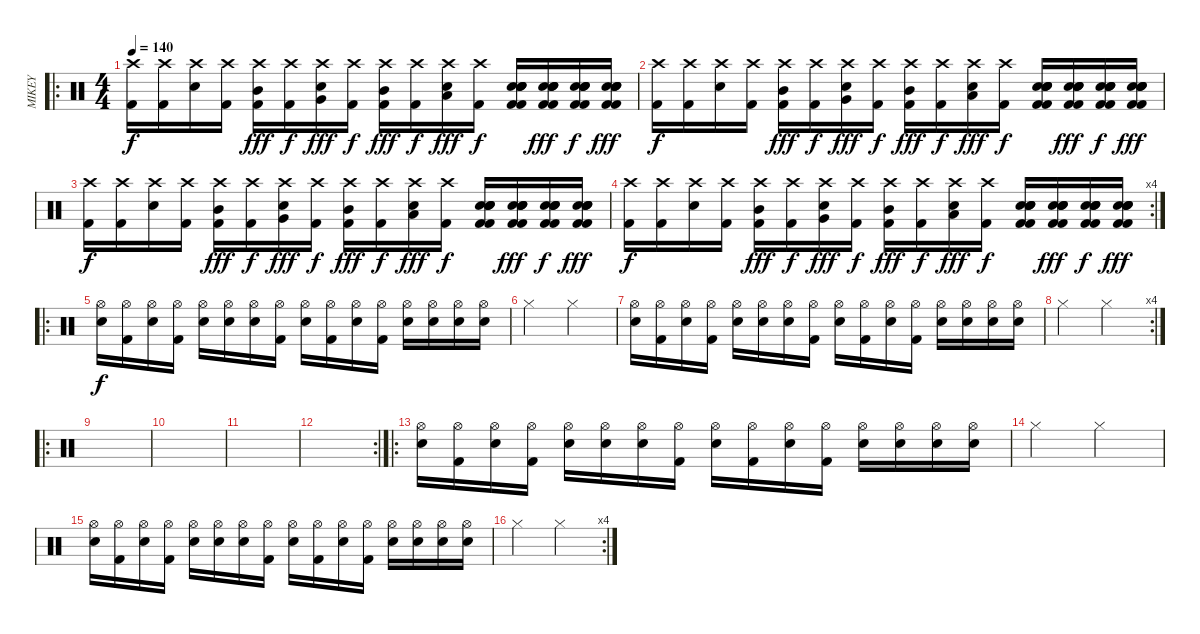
\track ("MIKEY" "MIKEY") {instrument percussion}
\staff {score}
\articulation defaults
\ro
\ts (4 4)
\tempo 140
\clef neutral
\ks c
("Crash high (hit)" "Kick (hit) 2").16{dy f} ("Crash high (hit)" "Kick (hit) 2").16 ("Crash high (hit)" "Snare (hit) 2").16 ("Crash high (hit)" "Kick (hit) 2").16 ("Mid Tom (hit)" "Crash high (hit)" "Kick (hit) 2").16{dy fff} ("Crash high (hit)" "Kick (hit) 2").16{dy f} ("Very Low Tom (hit)" "Crash high (hit)" "Snare (hit) 2").16{dy fff} ("Crash high (hit)" "Kick (hit) 2").16{dy f} ("Mid Tom (hit)" "Crash high (hit)" "Kick (hit) 2").16{dy fff} ("Crash high (hit)" "Kick (hit) 2").16{dy f} ("Low Tom (hit)" "Crash high (hit)" "Snare (hit) 2").16{dy fff} ("Crash high (hit)" "Kick (hit) 2").16{dy f} ("Kick (hit) 2" "Electric Snare (hit)" "Electric Snare (hit)" "Kick (hit) 2" "Snare (hit) 2" "Electric Snare (hit)").16 ("Kick (hit) 2" "Electric Snare (hit)" "Electric Snare (hit)" "Kick (hit) 2" "Snare (hit) 2" "Electric Snare (hit)").16{dy fff} ("Kick (hit) 2" "Electric Snare (hit)" "Electric Snare (hit)" "Kick (hit) 2" "Snare (hit) 2" "Electric Snare (hit)").16{dy f} ("Kick (hit) 2" "Electric Snare (hit)" "Electric Snare (hit)" "Kick (hit) 2" "Snare (hit) 2" "Electric Snare (hit)").16{dy fff} |
("Crash high (hit)" "Kick (hit) 2").16{dy f} ("Crash high (hit)" "Kick (hit) 2").16 ("Crash high (hit)" "Snare (hit) 2").16 ("Crash high (hit)" "Kick (hit) 2").16 ("Mid Tom (hit)" "Crash high (hit)" "Kick (hit) 2").16{dy fff} ("Crash high (hit)" "Kick (hit) 2").16{dy f} ("Very Low Tom (hit)" "Crash high (hit)" "Snare (hit) 2").16{dy fff} ("Crash high (hit)" "Kick (hit) 2").16{dy f} ("Mid Tom (hit)" "Crash high (hit)" "Kick (hit) 2").16{dy fff} ("Crash high (hit)" "Kick (hit) 2").16{dy f} ("Low Tom (hit)" "Crash high (hit)" "Snare (hit) 2").16{dy fff} ("Crash high (hit)" "Kick (hit) 2").16{dy f} ("Kick (hit) 2" "Electric Snare (hit)" "Electric Snare (hit)" "Kick (hit) 2" "Snare (hit) 2" "Electric Snare (hit)").16 ("Kick (hit) 2" "Electric Snare (hit)" "Electric Snare (hit)" "Kick (hit) 2" "Snare (hit) 2" "Electric Snare (hit)").16{dy fff} ("Kick (hit) 2" "Electric Snare (hit)" "Electric Snare (hit)" "Kick (hit) 2" "Snare (hit) 2" "Electric Snare (hit)").16{dy f} ("Kick (hit) 2" "Electric Snare (hit)" "Electric Snare (hit)" "Kick (hit) 2" "Snare (hit) 2" "Electric Snare (hit)").16{dy fff} |
("Crash high (hit)" "Kick (hit) 2").16{dy f} ("Crash high (hit)" "Kick (hit) 2").16 ("Crash high (hit)" "Snare (hit) 2").16 ("Crash high (hit)" "Kick (hit) 2").16 ("Mid Tom (hit)" "Crash high (hit)" "Kick (hit) 2").16{dy fff} ("Crash high (hit)" "Kick (hit) 2").16{dy f} ("Very Low Tom (hit)" "Crash high (hit)" "Snare (hit) 2").16{dy fff} ("Crash high (hit)" "Kick (hit) 2").16{dy f} ("Mid Tom (hit)" "Crash high (hit)" "Kick (hit) 2").16{dy fff} ("Crash high (hit)" "Kick (hit) 2").16{dy f} ("Low Tom (hit)" "Crash high (hit)" "Snare (hit) 2").16{dy fff} ("Crash high (hit)" "Kick (hit) 2").16{dy f} ("Kick (hit) 2" "Electric Snare (hit)" "Electric Snare (hit)" "Kick (hit) 2" "Snare (hit) 2" "Electric Snare (hit)").16 ("Kick (hit) 2" "Electric Snare (hit)" "Electric Snare (hit)" "Kick (hit) 2" "Snare (hit) 2" "Electric Snare (hit)").16{dy fff} ("Kick (hit) 2" "Electric Snare (hit)" "Electric Snare (hit)" "Kick (hit) 2" "Snare (hit) 2" "Electric Snare (hit)").16{dy f} ("Kick (hit) 2" "Electric Snare (hit)" "Electric Snare (hit)" "Kick (hit) 2" "Snare (hit) 2" "Electric Snare (hit)").16{dy fff} |
\rc 4
("Crash high (hit)" "Kick (hit) 2").16{dy f} ("Crash high (hit)" "Kick (hit) 2").16 ("Crash high (hit)" "Snare (hit) 2").16 ("Crash high (hit)" "Kick (hit) 2").16 ("Mid Tom (hit)" "Crash high (hit)" "Kick (hit) 2").16{dy fff} ("Crash high (hit)" "Kick (hit) 2").16{dy f} ("Very Low Tom (hit)" "Crash high (hit)" "Snare (hit) 2").16{dy fff} ("Crash high (hit)" "Kick (hit) 2").16{dy f} ("Mid Tom (hit)" "Crash high (hit)" "Kick (hit) 2").16{dy fff} ("Crash high (hit)" "Kick (hit) 2").16{dy f} ("Low Tom (hit)" "Crash high (hit)" "Snare (hit) 2").16{dy fff} ("Crash high (hit)" "Kick (hit) 2").16{dy f} ("Kick (hit) 2" "Electric Snare (hit)" "Electric Snare (hit)" "Kick (hit) 2" "Snare (hit) 2" "Electric Snare (hit)").16 ("Kick (hit) 2" "Electric Snare (hit)" "Electric Snare (hit)" "Kick (hit) 2" "Snare (hit) 2" "Electric Snare (hit)").16{dy fff} ("Kick (hit) 2" "Electric Snare (hit)" "Electric Snare (hit)" "Kick (hit) 2" "Snare (hit) 2" "Electric Snare (hit)").16{dy f} ("Kick (hit) 2" "Electric Snare (hit)" "Electric Snare (hit)" "Kick (hit) 2" "Snare (hit) 2" "Electric Snare (hit)").16{dy fff} |
\ro
("Hi-Hat (open)" "Electric Snare (hit)").16{dy f} ("Hi-Hat (open)" "Kick (hit) 2").16 ("Hi-Hat (open)" "Electric Snare (hit)").16 ("Hi-Hat (open)" "Kick (hit) 2").16 ("Hi-Hat (open)" "Electric Snare (hit)").16 ("Hi-Hat (open)" "Electric Snare (hit)").16 ("Hi-Hat (open)" "Electric Snare (hit)").16 ("Hi-Hat (open)" "Kick (hit) 2").16 ("Hi-Hat (open)" "Electric Snare (hit)").16 ("Hi-Hat (open)" "Kick (hit) 2").16 ("Hi-Hat (open)" "Electric Snare (hit)").16 ("Hi-Hat (open)" "Kick (hit) 2").16 ("Hi-Hat (open)" "Electric Snare (hit)").16 ("Hi-Hat (open)" "Electric Snare (hit)").16 ("Hi-Hat (open)" "Electric Snare (hit)").16 ("Hi-Hat (open)" "Electric Snare (hit)").16 |
"Hi-Hat (closed)".2 "Hi-Hat (closed)".2 |
("Hi-Hat (open)" "Electric Snare (hit)").16 ("Hi-Hat (open)" "Kick (hit) 2").16 ("Hi-Hat (open)" "Electric Snare (hit)").16 ("Hi-Hat (open)" "Kick (hit) 2").16 ("Hi-Hat (open)" "Electric Snare (hit)").16 ("Hi-Hat (open)" "Electric Snare (hit)").16 ("Hi-Hat (open)" "Electric Snare (hit)").16 ("Hi-Hat (open)" "Kick (hit) 2").16 ("Hi-Hat (open)" "Electric Snare (hit)").16 ("Hi-Hat (open)" "Kick (hit) 2").16 ("Hi-Hat (open)" "Electric Snare (hit)").16 ("Hi-Hat (open)" "Kick (hit) 2").16 ("Hi-Hat (open)" "Electric Snare (hit)").16 ("Hi-Hat (open)" "Electric Snare (hit)").16 ("Hi-Hat (open)" "Electric Snare (hit)").16 ("Hi-Hat (open)" "Electric Snare (hit)").16 |
\rc 4 "Hi-Hat (closed)".2 "Hi-Hat (closed)".2
|
\ro
|
|
|
\rc 2
|
\ro
("Hi-Hat (open)" "Electric Snare (hit)").16 ("Hi-Hat (open)" "Kick (hit) 2").16 ("Hi-Hat (open)" "Electric Snare (hit)").16 ("Hi-Hat (open)" "Kick (hit) 2").16 ("Hi-Hat (open)" "Electric Snare (hit)").16 ("Hi-Hat (open)" "Electric Snare (hit)").16 ("Hi-Hat (open)" "Electric Snare (hit)").16 ("Hi-Hat (open)" "Kick (hit) 2").16 ("Hi-Hat (open)" "Electric Snare (hit)").16 ("Hi-Hat (open)" "Kick (hit) 2").16 ("Hi-Hat (open)" "Electric Snare (hit)").16 ("Hi-Hat (open)" "Kick (hit) 2").16 ("Hi-Hat (open)" "Electric Snare (hit)").16 ("Hi-Hat (open)" "Electric Snare (hit)").16 ("Hi-Hat (open)" "Electric Snare (hit)").16 ("Hi-Hat (open)" "Electric Snare (hit)").16 |
"Hi-Hat (closed)".2 "Hi-Hat (closed)".2 |
("Hi-Hat (open)" "Electric Snare (hit)").16 ("Hi-Hat (open)" "Kick (hit) 2").16 ("Hi-Hat (open)" "Electric Snare (hit)").16 ("Hi-Hat (open)" "Kick (hit) 2").16 ("Hi-Hat (open)" "Electric Snare (hit)").16 ("Hi-Hat (open)" "Electric Snare (hit)").16 ("Hi-Hat (open)" "Electric Snare (hit)").16 ("Hi-Hat (open)" "Kick (hit) 2").16 ("Hi-Hat (open)" "Electric Snare (hit)").16 ("Hi-Hat (open)" "Kick (hit) 2").16 ("Hi-Hat (open)" "Electric Snare (hit)").16 ("Hi-Hat (open)" "Kick (hit) 2").16 ("Hi-Hat (open)" "Electric Snare (hit)").16 ("Hi-Hat (open)" "Electric Snare (hit)").16 ("Hi-Hat (open)" "Electric Snare (hit)").16 ("Hi-Hat (open)" "Electric Snare (hit)").16 |
\rc 4 "Hi-Hat (closed)".2 "Hi-Hat (closed)".2
